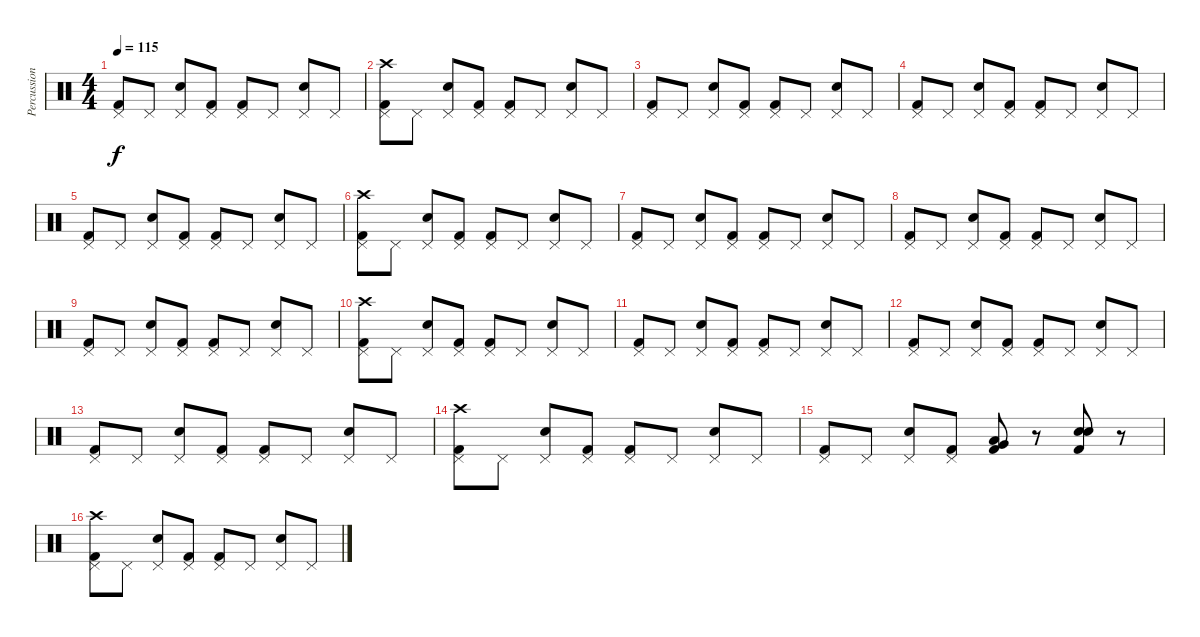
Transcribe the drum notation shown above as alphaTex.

\track ("Percussion" "Percussion") {instrument percussion}
\staff {score}
\articulation defaults
\ts (4 4)
\tempo 115
\clef neutral
\ks c
("Pedal Hi-Hat (hit)" "Kick (hit) 2").8{dy f} "Pedal Hi-Hat (hit)".8 ("Pedal Hi-Hat (hit)" "Snare (hit) 2").8 ("Pedal Hi-Hat (hit)" "Kick (hit) 2").8 ("Pedal Hi-Hat (hit)" "Kick (hit) 2").8 "Pedal Hi-Hat (hit)".8 ("Pedal Hi-Hat (hit)" "Snare (hit) 2").8 "Pedal Hi-Hat (hit)".8 |
("Crash high (hit)" "Pedal Hi-Hat (hit)" "Kick (hit) 2").8 "Pedal Hi-Hat (hit)".8 ("Pedal Hi-Hat (hit)" "Snare (hit) 2").8 ("Pedal Hi-Hat (hit)" "Kick (hit) 2").8 ("Pedal Hi-Hat (hit)" "Kick (hit) 2").8 "Pedal Hi-Hat (hit)".8 ("Pedal Hi-Hat (hit)" "Snare (hit) 2").8 "Pedal Hi-Hat (hit)".8 |
("Pedal Hi-Hat (hit)" "Kick (hit) 2").8 "Pedal Hi-Hat (hit)".8 ("Pedal Hi-Hat (hit)" "Snare (hit) 2").8 ("Pedal Hi-Hat (hit)" "Kick (hit) 2").8 ("Pedal Hi-Hat (hit)" "Kick (hit) 2").8 "Pedal Hi-Hat (hit)".8 ("Pedal Hi-Hat (hit)" "Snare (hit) 2").8 "Pedal Hi-Hat (hit)".8 |
("Pedal Hi-Hat (hit)" "Kick (hit) 2").8 "Pedal Hi-Hat (hit)".8 ("Pedal Hi-Hat (hit)" "Snare (hit) 2").8 ("Pedal Hi-Hat (hit)" "Kick (hit) 2").8 ("Pedal Hi-Hat (hit)" "Kick (hit) 2").8 "Pedal Hi-Hat (hit)".8 ("Pedal Hi-Hat (hit)" "Snare (hit) 2").8 "Pedal Hi-Hat (hit)".8 |
("Pedal Hi-Hat (hit)" "Kick (hit) 2").8 "Pedal Hi-Hat (hit)".8 ("Pedal Hi-Hat (hit)" "Snare (hit) 2").8 ("Pedal Hi-Hat (hit)" "Kick (hit) 2").8 ("Pedal Hi-Hat (hit)" "Kick (hit) 2").8 "Pedal Hi-Hat (hit)".8 ("Pedal Hi-Hat (hit)" "Snare (hit) 2").8 "Pedal Hi-Hat (hit)".8 |
("Crash high (hit)" "Pedal Hi-Hat (hit)" "Kick (hit) 2").8 "Pedal Hi-Hat (hit)".8 ("Pedal Hi-Hat (hit)" "Snare (hit) 2").8 ("Pedal Hi-Hat (hit)" "Kick (hit) 2").8 ("Pedal Hi-Hat (hit)" "Kick (hit) 2").8 "Pedal Hi-Hat (hit)".8 ("Pedal Hi-Hat (hit)" "Snare (hit) 2").8 "Pedal Hi-Hat (hit)".8 |
("Pedal Hi-Hat (hit)" "Kick (hit) 2").8 "Pedal Hi-Hat (hit)".8 ("Pedal Hi-Hat (hit)" "Snare (hit) 2").8 ("Pedal Hi-Hat (hit)" "Kick (hit) 2").8 ("Pedal Hi-Hat (hit)" "Kick (hit) 2").8 "Pedal Hi-Hat (hit)".8 ("Pedal Hi-Hat (hit)" "Snare (hit) 2").8 "Pedal Hi-Hat (hit)".8 |
("Pedal Hi-Hat (hit)" "Kick (hit) 2").8 "Pedal Hi-Hat (hit)".8 ("Pedal Hi-Hat (hit)" "Snare (hit) 2").8 ("Pedal Hi-Hat (hit)" "Kick (hit) 2").8 ("Pedal Hi-Hat (hit)" "Kick (hit) 2").8 "Pedal Hi-Hat (hit)".8 ("Pedal Hi-Hat (hit)" "Snare (hit) 2").8 "Pedal Hi-Hat (hit)".8 |
("Pedal Hi-Hat (hit)" "Kick (hit) 2").8 "Pedal Hi-Hat (hit)".8 ("Pedal Hi-Hat (hit)" "Snare (hit) 2").8 ("Pedal Hi-Hat (hit)" "Kick (hit) 2").8 ("Pedal Hi-Hat (hit)" "Kick (hit) 2").8 "Pedal Hi-Hat (hit)".8 ("Pedal Hi-Hat (hit)" "Snare (hit) 2").8 "Pedal Hi-Hat (hit)".8 |
("Crash high (hit)" "Pedal Hi-Hat (hit)" "Kick (hit) 2").8 "Pedal Hi-Hat (hit)".8 ("Pedal Hi-Hat (hit)" "Snare (hit) 2").8 ("Pedal Hi-Hat (hit)" "Kick (hit) 2").8 ("Pedal Hi-Hat (hit)" "Kick (hit) 2").8 "Pedal Hi-Hat (hit)".8 ("Pedal Hi-Hat (hit)" "Snare (hit) 2").8 "Pedal Hi-Hat (hit)".8 |
("Pedal Hi-Hat (hit)" "Kick (hit) 2").8 "Pedal Hi-Hat (hit)".8 ("Pedal Hi-Hat (hit)" "Snare (hit) 2").8 ("Pedal Hi-Hat (hit)" "Kick (hit) 2").8 ("Pedal Hi-Hat (hit)" "Kick (hit) 2").8 "Pedal Hi-Hat (hit)".8 ("Pedal Hi-Hat (hit)" "Snare (hit) 2").8 "Pedal Hi-Hat (hit)".8 |
("Pedal Hi-Hat (hit)" "Kick (hit) 2").8 "Pedal Hi-Hat (hit)".8 ("Pedal Hi-Hat (hit)" "Snare (hit) 2").8 ("Pedal Hi-Hat (hit)" "Kick (hit) 2").8 ("Pedal Hi-Hat (hit)" "Kick (hit) 2").8 "Pedal Hi-Hat (hit)".8 ("Pedal Hi-Hat (hit)" "Snare (hit) 2").8 "Pedal Hi-Hat (hit)".8 |
("Pedal Hi-Hat (hit)" "Kick (hit) 2").8 "Pedal Hi-Hat (hit)".8 ("Pedal Hi-Hat (hit)" "Snare (hit) 2").8 ("Pedal Hi-Hat (hit)" "Kick (hit) 2").8 ("Pedal Hi-Hat (hit)" "Kick (hit) 2").8 "Pedal Hi-Hat (hit)".8 ("Pedal Hi-Hat (hit)" "Snare (hit) 2").8 "Pedal Hi-Hat (hit)".8 |
("Crash high (hit)" "Pedal Hi-Hat (hit)" "Kick (hit) 2").8 "Pedal Hi-Hat (hit)".8 ("Pedal Hi-Hat (hit)" "Snare (hit) 2").8 ("Pedal Hi-Hat (hit)" "Kick (hit) 2").8 ("Pedal Hi-Hat (hit)" "Kick (hit) 2").8 "Pedal Hi-Hat (hit)".8 ("Pedal Hi-Hat (hit)" "Snare (hit) 2").8 "Pedal Hi-Hat (hit)".8 |
("Pedal Hi-Hat (hit)" "Kick (hit) 2").8 "Pedal Hi-Hat (hit)".8 ("Pedal Hi-Hat (hit)" "Snare (hit) 2").8 ("Pedal Hi-Hat (hit)" "Kick (hit) 2").8 ("Low Tom (hit)" "Very Low Tom (hit)" "Kick (hit) 2").8 r.8 ("Snare (hit) 2" "Snare (hit) 2" "Kick (hit) 2").8 r.8 |
("Crash high (hit)" "Pedal Hi-Hat (hit)" "Kick (hit) 2").8 "Pedal Hi-Hat (hit)".8 ("Pedal Hi-Hat (hit)" "Snare (hit) 2").8 ("Pedal Hi-Hat (hit)" "Kick (hit) 2").8 ("Pedal Hi-Hat (hit)" "Kick (hit) 2").8 "Pedal Hi-Hat (hit)".8 ("Pedal Hi-Hat (hit)" "Snare (hit) 2").8 "Pedal Hi-Hat (hit)".8
